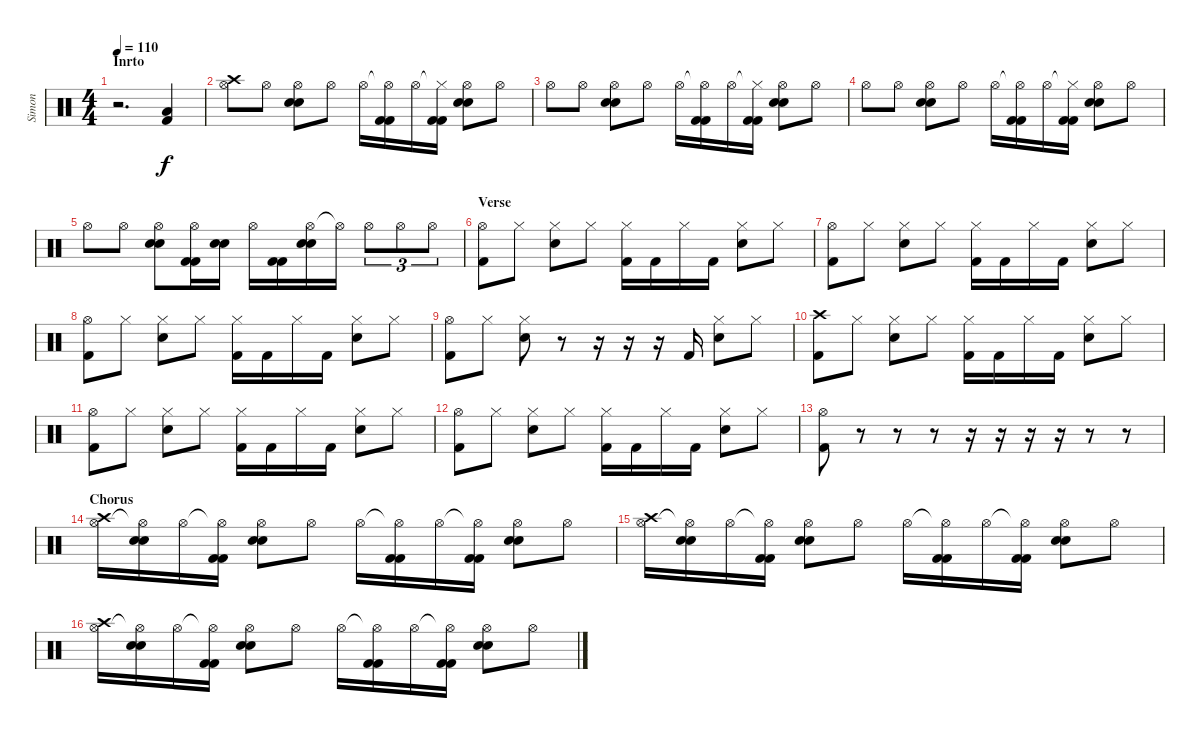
\track ("Simon" "Simon") {instrument percussion}
\staff {score}
\articulation defaults
\ts (4 4)
\section ("" "Inrto")
\tempo 110
\clef neutral
\ks c
r.2{d dy f} ("Kick (hit) 2" "Low Tom (hit)").4 |
("Hi-Hat (open)" "Crash high (hit)").8 "Hi-Hat (open)".8 ("Hi-Hat (open)" "Electric Snare (hit)" "Electric Snare (hit)").8 "Hi-Hat (open)".8 "Hi-Hat (open)".16 ("Hi-Hat (open)"{t} "Kick (hit) 2" "Kick (hit) 2").16 "Hi-Hat (open)".16 ("Hi-Hat (closed)"{t} "Kick (hit) 2" "Kick (hit) 2").16 ("Hi-Hat (open)" "Electric Snare (hit)" "Electric Snare (hit)").8 "Hi-Hat (open)".8 |
"Hi-Hat (open)".8 "Hi-Hat (open)".8 ("Hi-Hat (open)" "Electric Snare (hit)" "Electric Snare (hit)").8 "Hi-Hat (open)".8 "Hi-Hat (open)".16 ("Hi-Hat (open)"{t} "Kick (hit) 2" "Kick (hit) 2").16 "Hi-Hat (open)".16 ("Hi-Hat (closed)"{t} "Kick (hit) 2" "Kick (hit) 2").16 ("Hi-Hat (open)" "Electric Snare (hit)" "Electric Snare (hit)").8 "Hi-Hat (open)".8 |
"Hi-Hat (open)".8 "Hi-Hat (open)".8 ("Hi-Hat (open)" "Electric Snare (hit)" "Electric Snare (hit)").8 "Hi-Hat (open)".8 "Hi-Hat (open)".16 ("Hi-Hat (open)"{t} "Kick (hit) 2" "Kick (hit) 2").16 "Hi-Hat (open)".16 ("Hi-Hat (closed)"{t} "Kick (hit) 2" "Kick (hit) 2").16 ("Hi-Hat (open)" "Electric Snare (hit)" "Electric Snare (hit)").8 "Hi-Hat (open)".8 |
"Hi-Hat (open)".8 "Hi-Hat (open)".8 ("Hi-Hat (open)" "Electric Snare (hit)" "Electric Snare (hit)").8 ("Hi-Hat (open)" "Kick (hit) 2" "Kick (hit) 2").16 ("Electric Snare (hit)" "Electric Snare (hit)").16 "Hi-Hat (open)".16 ("Kick (hit) 2" "Kick (hit) 2").16 ("Hi-Hat (open)" "Electric Snare (hit)" "Electric Snare (hit)").16 "Hi-Hat (open)"{t}.16 "Hi-Hat (open)".8{tu (3 2)} "Hi-Hat (open)".8{tu (3 2)} "Hi-Hat (open)".8{tu (3 2)} |
\section ("" "Verse")
("Hi-Hat (open)" "Kick (hit) 2").8 "Hi-Hat (closed)".8 ("Hi-Hat (closed)" "Electric Snare (hit)").8 "Hi-Hat (closed)".8 ("Hi-Hat (closed)" "Kick (hit) 2").16 "Kick (hit) 2".16 "Hi-Hat (closed)".16 "Kick (hit) 2".16 ("Hi-Hat (closed)" "Electric Snare (hit)").8 "Hi-Hat (closed)".8 |
("Hi-Hat (open)" "Kick (hit) 2").8 "Hi-Hat (closed)".8 ("Hi-Hat (closed)" "Electric Snare (hit)").8 "Hi-Hat (closed)".8 ("Hi-Hat (closed)" "Kick (hit) 2").16 "Kick (hit) 2".16 "Hi-Hat (closed)".16 "Kick (hit) 2".16 ("Hi-Hat (closed)" "Electric Snare (hit)").8 "Hi-Hat (closed)".8 |
("Hi-Hat (open)" "Kick (hit) 2").8 "Hi-Hat (closed)".8 ("Hi-Hat (closed)" "Electric Snare (hit)").8 "Hi-Hat (closed)".8 ("Hi-Hat (closed)" "Kick (hit) 2").16 "Kick (hit) 2".16 "Hi-Hat (closed)".16 "Kick (hit) 2".16 ("Hi-Hat (closed)" "Electric Snare (hit)").8 "Hi-Hat (closed)".8 |
("Hi-Hat (open)" "Kick (hit) 2").8 "Hi-Hat (closed)".8 ("Hi-Hat (closed)" "Electric Snare (hit)").8 r.8 r.16 r.16 r.16 "Kick (hit) 2".16 ("Hi-Hat (closed)" "Electric Snare (hit)").8 "Hi-Hat (closed)".8 |
("Crash high (hit)" "Kick (hit) 2").8 "Hi-Hat (closed)".8 ("Hi-Hat (closed)" "Electric Snare (hit)").8 "Hi-Hat (closed)".8 ("Hi-Hat (closed)" "Kick (hit) 2").16 "Kick (hit) 2".16 "Hi-Hat (closed)".16 "Kick (hit) 2".16 ("Hi-Hat (closed)" "Electric Snare (hit)").8 "Hi-Hat (closed)".8 |
("Hi-Hat (open)" "Kick (hit) 2").8 "Hi-Hat (closed)".8 ("Hi-Hat (closed)" "Electric Snare (hit)").8 "Hi-Hat (closed)".8 ("Hi-Hat (closed)" "Kick (hit) 2").16 "Kick (hit) 2".16 "Hi-Hat (closed)".16 "Kick (hit) 2".16 ("Hi-Hat (closed)" "Electric Snare (hit)").8 "Hi-Hat (closed)".8 |
("Hi-Hat (open)" "Kick (hit) 2").8 "Hi-Hat (closed)".8 ("Hi-Hat (closed)" "Electric Snare (hit)").8 "Hi-Hat (closed)".8 ("Hi-Hat (closed)" "Kick (hit) 2").16 "Kick (hit) 2".16 "Hi-Hat (closed)".16 "Kick (hit) 2".16 ("Hi-Hat (closed)" "Electric Snare (hit)").8 "Hi-Hat (closed)".8 |
("Hi-Hat (open)" "Kick (hit) 2").8 r.8 r.8 r.8 r.16 r.16 r.16 r.16 r.8 r.8 |
\section ("" "Chorus")
("Hi-Hat (open)" "Crash high (hit)").16 ("Hi-Hat (open)"{t} "Electric Snare (hit)" "Electric Snare (hit)").16 "Hi-Hat (open)".16 ("Hi-Hat (open)"{t} "Kick (hit) 2" "Kick (hit) 2").16 ("Hi-Hat (open)" "Electric Snare (hit)" "Electric Snare (hit)").8 "Hi-Hat (open)".8 "Hi-Hat (open)".16 ("Hi-Hat (open)"{t} "Kick (hit) 2" "Kick (hit) 2").16 "Hi-Hat (open)".16 ("Hi-Hat (open)"{t} "Kick (hit) 2" "Kick (hit) 2").16 ("Hi-Hat (open)" "Electric Snare (hit)" "Electric Snare (hit)").8 "Hi-Hat (open)".8 |
("Hi-Hat (open)" "Crash high (hit)").16 ("Hi-Hat (open)"{t} "Electric Snare (hit)" "Electric Snare (hit)").16 "Hi-Hat (open)".16 ("Hi-Hat (open)"{t} "Kick (hit) 2" "Kick (hit) 2").16 ("Hi-Hat (open)" "Electric Snare (hit)" "Electric Snare (hit)").8 "Hi-Hat (open)".8 "Hi-Hat (open)".16 ("Hi-Hat (open)"{t} "Kick (hit) 2" "Kick (hit) 2").16 "Hi-Hat (open)".16 ("Hi-Hat (open)"{t} "Kick (hit) 2" "Kick (hit) 2").16 ("Hi-Hat (open)" "Electric Snare (hit)" "Electric Snare (hit)").8 "Hi-Hat (open)".8 |
("Hi-Hat (open)" "Crash high (hit)").16 ("Hi-Hat (open)"{t} "Electric Snare (hit)" "Electric Snare (hit)").16 "Hi-Hat (open)".16 ("Hi-Hat (open)"{t} "Kick (hit) 2" "Kick (hit) 2").16 ("Hi-Hat (open)" "Electric Snare (hit)" "Electric Snare (hit)").8 "Hi-Hat (open)".8 "Hi-Hat (open)".16 ("Hi-Hat (open)"{t} "Kick (hit) 2" "Kick (hit) 2").16 "Hi-Hat (open)".16 ("Hi-Hat (open)"{t} "Kick (hit) 2" "Kick (hit) 2").16 ("Hi-Hat (open)" "Electric Snare (hit)" "Electric Snare (hit)").8 "Hi-Hat (open)".8
